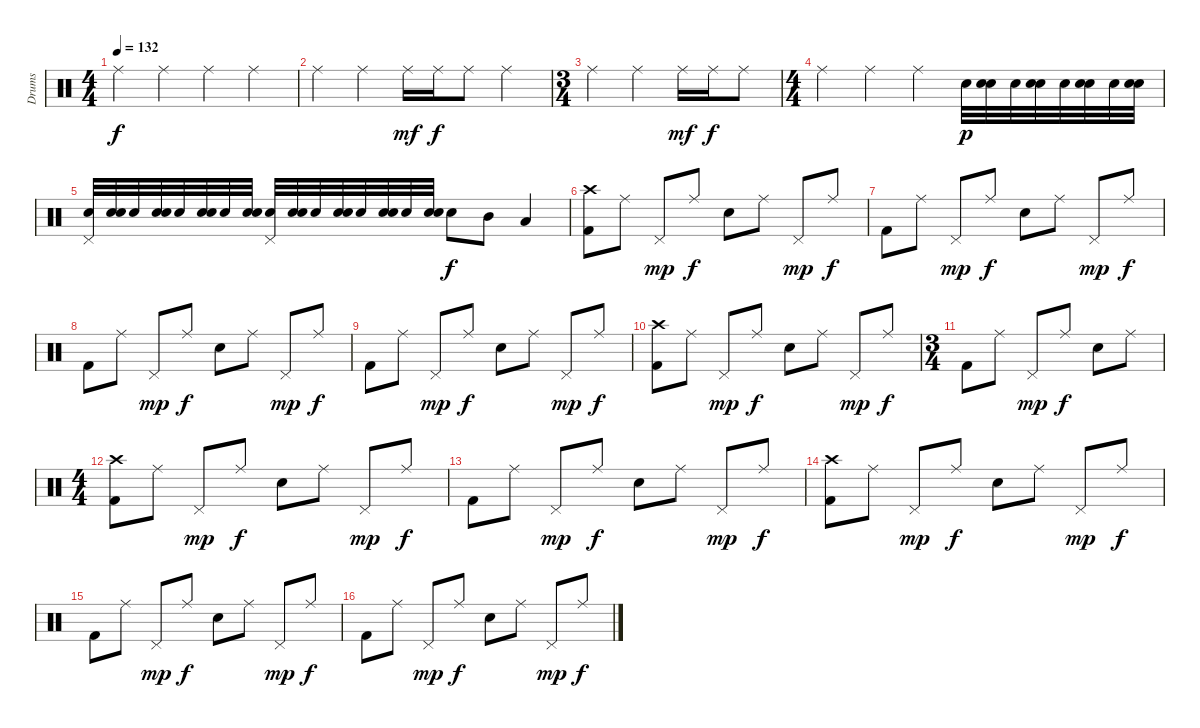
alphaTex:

\track ("Drums" "Drums") {instrument percussion}
\staff {score}
\articulation defaults
\ts (4 4)
\tempo 132
\clef neutral
\ks c "Ride (middle)".4{dy f} "Ride (middle)".4 "Ride (middle)".4 "Ride (middle)".4
|
"Ride (middle)".4 "Ride (middle)".4 "Ride (middle)".16{dy mf} "Ride (middle)".16{dy f} "Ride (middle)".8 "Ride (middle)".4 |
\ts (3 4)
"Ride (middle)".4 "Ride (middle)".4 "Ride (middle)".16{dy mf} "Ride (middle)".16{dy f} "Ride (middle)".8 |
\ts (4 4)
"Ride (middle)".4 "Ride (middle)".4 "Ride (middle)".4 "Electric Snare (hit)".32{dy p} ("Electric Snare (hit)" "Electric Snare (hit)").32 "Electric Snare (hit)".32 ("Electric Snare (hit)" "Electric Snare (hit)").32 "Electric Snare (hit)".32 ("Electric Snare (hit)" "Electric Snare (hit)").32 "Electric Snare (hit)".32 ("Electric Snare (hit)" "Electric Snare (hit)").32 |
("Electric Snare (hit)" "Pedal Hi-Hat (hit)").32 ("Electric Snare (hit)" "Electric Snare (hit)").32 "Electric Snare (hit)".32 ("Electric Snare (hit)" "Electric Snare (hit)").32 "Electric Snare (hit)".32 ("Electric Snare (hit)" "Electric Snare (hit)").32 "Electric Snare (hit)".32 ("Electric Snare (hit)" "Electric Snare (hit)").32 ("Electric Snare (hit)" "Pedal Hi-Hat (hit)").32 ("Electric Snare (hit)" "Electric Snare (hit)").32 "Electric Snare (hit)".32 ("Electric Snare (hit)" "Electric Snare (hit)").32 "Electric Snare (hit)".32 ("Electric Snare (hit)" "Electric Snare (hit)").32 "Electric Snare (hit)".32 ("Electric Snare (hit)" "Electric Snare (hit)").32 "Electric Snare (hit)".8{dy f} "Mid Tom (hit)".8 "Low Tom (hit)".4 |
("Crash high (hit)" "Kick (hit) 2").8 "Ride (middle)".8 "Pedal Hi-Hat (hit)".8{dy mp} "Ride (middle)".8{dy f} "Electric Snare (hit)".8 "Ride (middle)".8 "Pedal Hi-Hat (hit)".8{dy mp} "Ride (middle)".8{dy f} |
"Kick (hit) 2".8 "Ride (middle)".8 "Pedal Hi-Hat (hit)".8{dy mp} "Ride (middle)".8{dy f} "Electric Snare (hit)".8 "Ride (middle)".8 "Pedal Hi-Hat (hit)".8{dy mp} "Ride (middle)".8{dy f} |
"Kick (hit) 2".8 "Ride (middle)".8 "Pedal Hi-Hat (hit)".8{dy mp} "Ride (middle)".8{dy f} "Electric Snare (hit)".8 "Ride (middle)".8 "Pedal Hi-Hat (hit)".8{dy mp} "Ride (middle)".8{dy f} |
"Kick (hit) 2".8 "Ride (middle)".8 "Pedal Hi-Hat (hit)".8{dy mp} "Ride (middle)".8{dy f} "Electric Snare (hit)".8 "Ride (middle)".8 "Pedal Hi-Hat (hit)".8{dy mp} "Ride (middle)".8{dy f} |
("Kick (hit) 2" "Crash high (hit)").8 "Ride (middle)".8 "Pedal Hi-Hat (hit)".8{dy mp} "Ride (middle)".8{dy f} "Electric Snare (hit)".8 "Ride (middle)".8 "Pedal Hi-Hat (hit)".8{dy mp} "Ride (middle)".8{dy f} |
\ts (3 4)
"Kick (hit) 2".8 "Ride (middle)".8 "Pedal Hi-Hat (hit)".8{dy mp} "Ride (middle)".8{dy f} "Electric Snare (hit)".8 "Ride (middle)".8 |
\ts (4 4)
("Crash high (hit)" "Kick (hit) 2").8 "Ride (middle)".8 "Pedal Hi-Hat (hit)".8{dy mp} "Ride (middle)".8{dy f} "Electric Snare (hit)".8 "Ride (middle)".8 "Pedal Hi-Hat (hit)".8{dy mp} "Ride (middle)".8{dy f} |
"Kick (hit) 2".8 "Ride (middle)".8 "Pedal Hi-Hat (hit)".8{dy mp} "Ride (middle)".8{dy f} "Electric Snare (hit)".8 "Ride (middle)".8 "Pedal Hi-Hat (hit)".8{dy mp} "Ride (middle)".8{dy f} |
("Kick (hit) 2" "Crash high (hit)").8 "Ride (middle)".8 "Pedal Hi-Hat (hit)".8{dy mp} "Ride (middle)".8{dy f} "Electric Snare (hit)".8 "Ride (middle)".8 "Pedal Hi-Hat (hit)".8{dy mp} "Ride (middle)".8{dy f} |
"Kick (hit) 2".8 "Ride (middle)".8 "Pedal Hi-Hat (hit)".8{dy mp} "Ride (middle)".8{dy f} "Electric Snare (hit)".8 "Ride (middle)".8 "Pedal Hi-Hat (hit)".8{dy mp} "Ride (middle)".8{dy f} |
"Kick (hit) 2".8 "Ride (middle)".8 "Pedal Hi-Hat (hit)".8{dy mp} "Ride (middle)".8{dy f} "Electric Snare (hit)".8 "Ride (middle)".8 "Pedal Hi-Hat (hit)".8{dy mp} "Ride (middle)".8{dy f}
